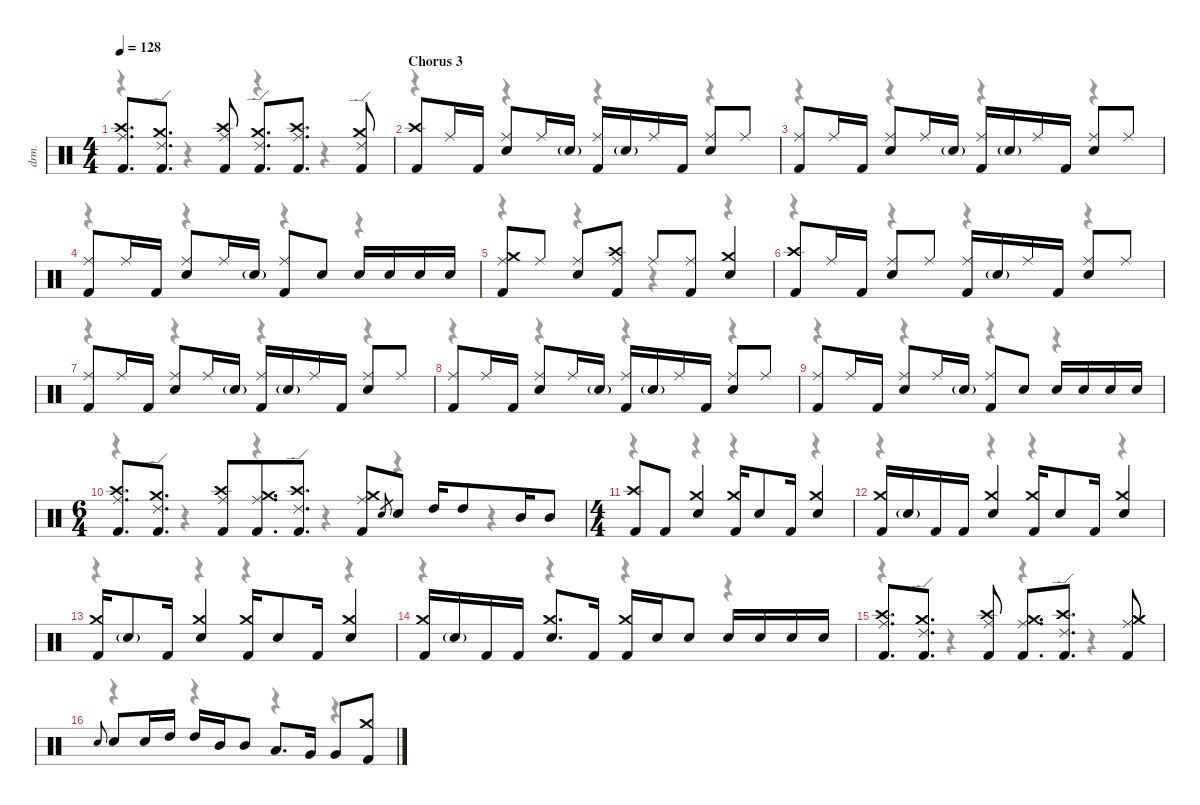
\defaultSystemsLayout 4
\hideDynamics
\bracketExtendMode nobrackets
\track ("Drums" "drm.") {instrument percussion}
\staff {score}
\articulation defaults
\voice
\ts (4 4)
\tempo 128
\clef neutral
\ks c
("Kick (hit) 2" "Ride (middle)" "Crash high (hit)").8{d dy fff} ("Kick (hit) 2" "Ride (edge) 2" "Crash medium (hit)").8{d} ("Kick (hit) 2" "Ride (middle)" "Crash high (hit)").8 ("Kick (hit) 2" "Ride (edge) 2" "Crash medium (hit)").8{d} ("Kick (hit) 2" "Ride (middle)" "Crash high (hit)").8{d} ("Kick (hit) 2" "Ride (edge) 2" "Crash medium (hit)").8 |
\section ("" "Chorus 3")
("Kick (hit) 2" "Crash high (hit)").8 "Ride (middle)".16{dy mp} "Kick (hit) 2".16{dy fff} ("Snare (hit) 2" "Ride (middle)").8 "Ride (middle)".16{dy mp} "Snare (hit) 2"{g}.16{dy f} ("Kick (hit) 2" "Ride (middle)").16{dy fff} "Snare (hit) 2"{g}.16{dy f} "Ride (middle)".16{dy mp} "Kick (hit) 2".16{dy fff} ("Snare (hit) 2" "Ride (middle)").8 "Ride (middle)".8{dy mp} |
("Kick (hit) 2" "Ride (middle)").8{dy fff} "Ride (middle)".16{dy mp} "Kick (hit) 2".16{dy fff} ("Snare (hit) 2" "Ride (middle)").8 "Ride (middle)".16{dy mp} "Snare (hit) 2"{g}.16{dy mf} ("Kick (hit) 2" "Ride (middle)").16{dy fff} "Snare (hit) 2"{g}.16{dy mf} "Ride (middle)".16{dy mp} "Kick (hit) 2".16{dy fff} ("Snare (hit) 2" "Ride (middle)").8 "Ride (middle)".8{dy mp} |
("Kick (hit) 2" "Ride (middle)").8{dy fff} "Ride (middle)".16{dy mp} "Kick (hit) 2".16{dy fff} ("Snare (hit) 2" "Ride (middle)").8 "Ride (middle)".16{dy mp} "Snare (hit) 2"{g}.16{dy mf} ("Kick (hit) 2" "Ride (middle)").8{dy fff} "Snare (hit) 2".8 "Snare (hit) 2".16 "Snare (hit) 2".16 "Snare (hit) 2".16 "Snare (hit) 2".16 |
("Kick (hit) 2" "Ride (middle)" "Crash medium (hit)").8 "Ride (middle)".8{dy mp} ("Snare (hit) 2" "Ride (middle)").8{dy fff} ("Kick (hit) 2" "Ride (middle)" "Crash high (hit)").8 "Ride (middle)".8{dy mp} ("Kick (hit) 2" "Ride (middle)").8{dy fff} ("Snare (hit) 2" "Crash medium (hit)").4 |
("Kick (hit) 2" "Crash high (hit)").8 "Ride (middle)".16{dy mp} "Kick (hit) 2".16{dy fff} ("Snare (hit) 2" "Ride (middle)").8 "Ride (middle)".8{dy mp} ("Kick (hit) 2" "Ride (middle)").16{dy fff} "Snare (hit) 2"{g}.16{dy f} "Ride (middle)".16{dy mp} "Kick (hit) 2".16{dy fff} ("Snare (hit) 2" "Ride (middle)").8 "Ride (middle)".8{dy mp} |
("Kick (hit) 2" "Ride (middle)").8{dy fff} "Ride (middle)".16{dy mp} "Kick (hit) 2".16{dy fff} ("Snare (hit) 2" "Ride (middle)").8 "Ride (middle)".16{dy mp} "Snare (hit) 2"{g}.16{dy mf} ("Kick (hit) 2" "Ride (middle)").16{dy fff} "Snare (hit) 2"{g}.16{dy mf} "Ride (middle)".16{dy mp} "Kick (hit) 2".16{dy fff} ("Snare (hit) 2" "Ride (middle)").8 "Ride (middle)".8{dy mp} |
("Kick (hit) 2" "Ride (middle)").8{dy fff} "Ride (middle)".16{dy mp} "Kick (hit) 2".16{dy fff} ("Snare (hit) 2" "Ride (middle)").8 "Ride (middle)".16{dy mp} "Snare (hit) 2"{g}.16{dy mf} ("Kick (hit) 2" "Ride (middle)").16{dy fff} "Snare (hit) 2"{g}.16{dy mf} "Ride (middle)".16{dy mp} "Kick (hit) 2".16{dy fff} ("Snare (hit) 2" "Ride (middle)").8 "Ride (middle)".8{dy mp} |
("Kick (hit) 2" "Ride (middle)").8{dy fff} "Ride (middle)".16{dy mp} "Kick (hit) 2".16{dy fff} ("Snare (hit) 2" "Ride (middle)").8 "Ride (middle)".16{dy mp} "Snare (hit) 2"{g}.16{dy mf} ("Kick (hit) 2" "Ride (middle)").8{dy fff} "Snare (hit) 2".8 "Snare (hit) 2".16 "Snare (hit) 2".16 "Snare (hit) 2".16 "Snare (hit) 2".16 |
\ts (6 4)
\beaming (8 3 3 3 3)
("Kick (hit) 2" "Ride (middle)" "Crash high (hit)").8{d} ("Kick (hit) 2" "Ride (edge) 2" "Crash medium (hit)").8{d} ("Kick (hit) 2" "Ride (middle)" "Crash high (hit)").8 ("Kick (hit) 2" "Ride (middle)" "Crash medium (hit)").8{d} ("Kick (hit) 2" "Ride (edge) 2" "Crash high (hit)").8{d} ("Kick (hit) 2" "Ride (middle)" "Crash medium (hit)").8 "Electric Snare (hit)".8{gr dy ff} "Snare (hit) 2".8{dy fff} "High Tom (hit)".16 "High Tom (hit)".8 "Mid Tom (hit)".16 "Mid Tom (hit)".8 |
\ts (4 4)
\beaming (8 2 2 2 2)
("Kick (hit) 2" "Crash high (hit)").8 "Kick (hit) 2".8 ("Snare (hit) 2" "Crash medium (hit)").4 ("Kick (hit) 2" "Crash medium (hit)").16 "Snare (hit) 2".8 "Kick (hit) 2".16 ("Snare (hit) 2" "Crash medium (hit)").4 |
("Kick (hit) 2" "Crash medium (hit)").16 "Snare (hit) 2"{g}.16{dy mf} "Kick (hit) 2".16{dy fff} "Kick (hit) 2".16 ("Snare (hit) 2" "Crash medium (hit)").4 ("Kick (hit) 2" "Crash medium (hit)").16 "Snare (hit) 2".8 "Kick (hit) 2".16 ("Snare (hit) 2" "Crash medium (hit)").4 |
("Kick (hit) 2" "Crash medium (hit)").16 "Snare (hit) 2"{g}.8{dy mf} "Kick (hit) 2".16{dy fff} ("Snare (hit) 2" "Crash medium (hit)").4 ("Kick (hit) 2" "Crash medium (hit)").16 "Snare (hit) 2".8 "Kick (hit) 2".16 ("Snare (hit) 2" "Crash medium (hit)").4 |
("Kick (hit) 2" "Crash medium (hit)").16 "Snare (hit) 2"{g}.16{dy mf} "Kick (hit) 2".16{dy fff} "Kick (hit) 2".16 ("Snare (hit) 2" "Crash medium (hit)").8{d} "Kick (hit) 2".16 ("Kick (hit) 2" "Crash medium (hit)").16 "Snare (hit) 2".16 "Snare (hit) 2".8 "Snare (hit) 2".16 "Snare (hit) 2".16 "Snare (hit) 2".16 "Snare (hit) 2".16 |
("Kick (hit) 2" "Ride (middle)" "Crash high (hit)").8{d} ("Kick (hit) 2" "Ride (edge) 2" "Crash medium (hit)").8{d} ("Kick (hit) 2" "Ride (middle)" "Crash high (hit)").8 ("Kick (hit) 2" "Ride (middle)" "Crash medium (hit)").8{d} ("Kick (hit) 2" "Ride (edge) 2" "Crash high (hit)").8{d} ("Kick (hit) 2" "Ride (middle)" "Crash medium (hit)").8 |
"Electric Snare (hit)".8{gr onbeat dy ff} "Snare (hit) 2".8{dy fff} "Snare (hit) 2".16 "High Tom (hit)".16 "High Tom (hit)".16 "Mid Tom (hit)".16 "Mid Tom (hit)".8 "Low Tom (hit)".8{d} "Very Low Tom (hit)".16 "Very Low Tom (hit)".8 ("Kick (hit) 2" "Crash medium (hit)").8
\voice
\clef neutral
\ottava regular
\simile none
\ks c
r.4{dy mf} r.4 r.4 r.4 |
r.4 r.4 r.4 r.4 |
r.4 r.4 r.4 r.4 |
r.4 r.4 r.4 r.4 |
r.4 r.4 r.4 r.4 |
r.4 r.4 r.4 r.4 |
r.4 r.4 r.4 r.4 |
r.4 r.4 r.4 r.4 |
r.4 r.4 r.4 r.4 |
r.4 r.4 r.4 r.4 r.4 r.4 |
r.4 r.4 r.4 r.4 |
r.4 r.4 r.4 r.4 |
r.4 r.4 r.4 r.4 |
r.4 r.4 r.4 r.4 |
r.4 r.4 r.4 r.4 |
r.4 r.4 r.4 r.4
